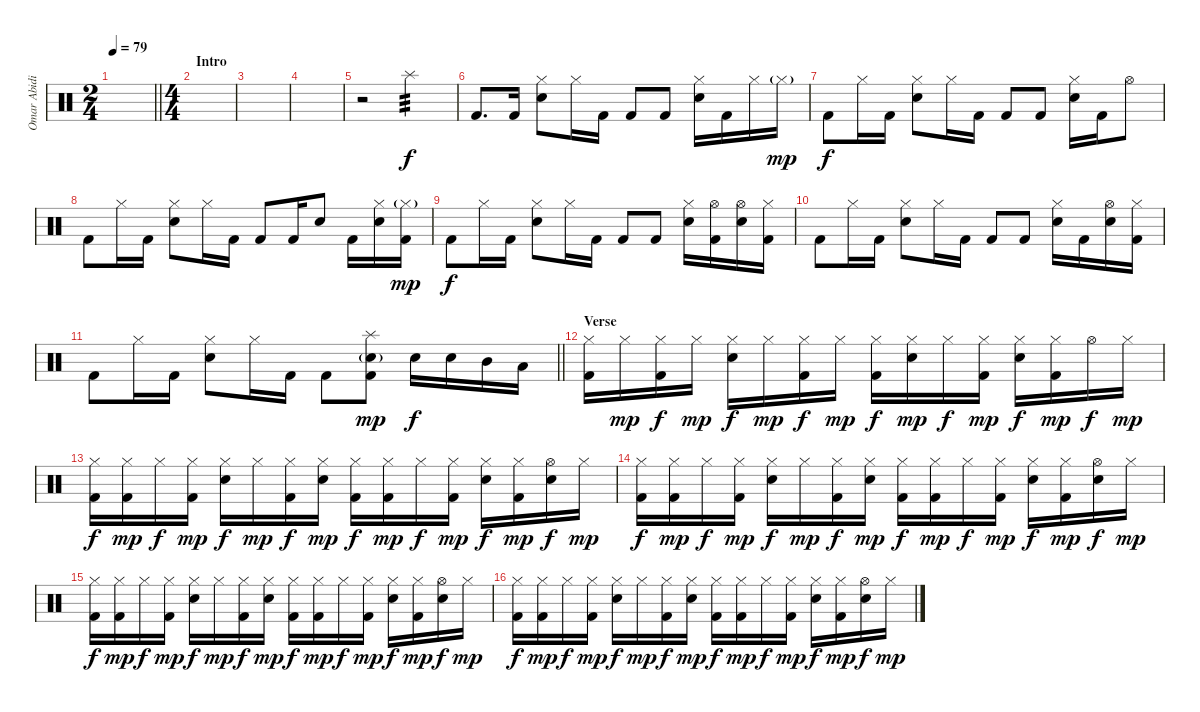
\track ("Omar Abidi" "Omar Abidi") {instrument percussion}
\staff {score}
\articulation defaults
\ts (2 4)
\tempo 79
\clef neutral
\barLineRight lightlight
\ks c
|
\ts (4 4)
\section ("" "Intro")
|
|
|
r.2{volume 0} "Splash (hit)".2{tp 3 volume 13} |
"Kick (hit) 2".8{d volume 13} "Kick (hit) 2".16 ("Hi-Hat (closed)" "Electric Snare (hit)").8 "Hi-Hat (closed)".16 "Kick (hit) 2".16 "Kick (hit) 2".8 "Kick (hit) 2".8 ("Hi-Hat (closed)" "Electric Snare (hit)").16 "Kick (hit) 2".16 "Hi-Hat (closed)".16 "Hi-Hat (closed)"{g}.16{dy mp} |
"Kick (hit) 2".8{dy f} "Hi-Hat (closed)".16 "Kick (hit) 2".16 ("Hi-Hat (closed)" "Electric Snare (hit)").8 "Hi-Hat (closed)".16 "Kick (hit) 2".16 "Kick (hit) 2".8 "Kick (hit) 2".8 ("Hi-Hat (closed)" "Electric Snare (hit)").16 "Kick (hit) 2".16 "Hi-Hat (open)".8 |
"Kick (hit) 2".8 "Hi-Hat (closed)".16 "Kick (hit) 2".16 ("Hi-Hat (closed)" "Electric Snare (hit)").8 "Hi-Hat (closed)".16 "Kick (hit) 2".16 "Kick (hit) 2".8 "Kick (hit) 2".16 "Electric Snare (hit)".8 "Kick (hit) 2".16 ("Hi-Hat (closed)" "Electric Snare (hit)").16 ("Hi-Hat (closed)"{g} "Kick (hit) 2").16{dy mp} |
"Kick (hit) 2".8{dy f} "Hi-Hat (closed)".16 "Kick (hit) 2".16 ("Hi-Hat (closed)" "Electric Snare (hit)").8 "Hi-Hat (closed)".16 "Kick (hit) 2".16 "Kick (hit) 2".8 "Kick (hit) 2".8 ("Hi-Hat (closed)" "Electric Snare (hit)").16 ("Hi-Hat (open)" "Kick (hit) 2").16 ("Hi-Hat (open)" "Electric Snare (hit)").16 ("Hi-Hat (closed)" "Kick (hit) 2").16 |
"Kick (hit) 2".8 "Hi-Hat (closed)".16 "Kick (hit) 2".16 ("Hi-Hat (closed)" "Electric Snare (hit)").8 "Hi-Hat (closed)".16 "Kick (hit) 2".16 "Kick (hit) 2".8 "Kick (hit) 2".8 ("Hi-Hat (closed)" "Electric Snare (hit)").16 "Kick (hit) 2".16 ("Hi-Hat (open)" "Electric Snare (hit)").16 ("Hi-Hat (closed)" "Kick (hit) 2").16 |
\barLineRight lightlight "Kick (hit) 2".8 "Hi-Hat (closed)".16 "Kick (hit) 2".16
("Hi-Hat (closed)" "Electric Snare (hit)").8 "Hi-Hat (closed)".16 "Kick (hit) 2".16 "Kick (hit) 2".8 ("Splash (hit)" "Electric Snare (hit)"{g} "Kick (hit) 2").8{dy mp} "Electric Snare (hit)".16{dy f} "Electric Snare (hit)".16 "Mid Tom (hit)".16 "Low Tom (hit)".16 |
\section ("" "Verse")
("Hi-Hat (closed)" "Kick (hit) 2").16 "Hi-Hat (closed)".16{dy mp} ("Hi-Hat (closed)" "Kick (hit) 2").16{dy f} "Hi-Hat (closed)".16{dy mp} ("Hi-Hat (closed)" "Electric Snare (hit)").16{dy f} "Hi-Hat (closed)".16{dy mp} ("Hi-Hat (closed)" "Kick (hit) 2").16{dy f} "Hi-Hat (closed)".16{dy mp} ("Hi-Hat (closed)" "Kick (hit) 2").16{dy f} ("Hi-Hat (closed)" "Electric Snare (hit)").16{dy mp} "Hi-Hat (closed)".16{dy f} ("Hi-Hat (closed)" "Kick (hit) 2").16{dy mp} ("Hi-Hat (closed)" "Electric Snare (hit)").16{dy f} ("Hi-Hat (closed)" "Kick (hit) 2").16{dy mp} "Hi-Hat (open)".16{dy f} "Hi-Hat (closed)".16{dy mp} |
("Hi-Hat (closed)" "Kick (hit) 2").16{dy f} ("Hi-Hat (closed)" "Kick (hit) 2").16{dy mp} "Hi-Hat (closed)".16{dy f} ("Hi-Hat (closed)" "Kick (hit) 2").16{dy mp} ("Hi-Hat (closed)" "Electric Snare (hit)").16{dy f} "Hi-Hat (closed)".16{dy mp} ("Hi-Hat (closed)" "Kick (hit) 2").16{dy f} ("Hi-Hat (closed)" "Electric Snare (hit)").16{dy mp} ("Hi-Hat (closed)" "Kick (hit) 2").16{dy f} ("Hi-Hat (closed)" "Kick (hit) 2").16{dy mp} "Hi-Hat (closed)".16{dy f} ("Hi-Hat (closed)" "Kick (hit) 2").16{dy mp} ("Hi-Hat (closed)" "Electric Snare (hit)").16{dy f} ("Hi-Hat (closed)" "Kick (hit) 2").16{dy mp} ("Hi-Hat (open)" "Electric Snare (hit)").16{dy f} "Hi-Hat (closed)".16{dy mp} |
("Hi-Hat (closed)" "Kick (hit) 2").16{dy f} ("Hi-Hat (closed)" "Kick (hit) 2").16{dy mp} "Hi-Hat (closed)".16{dy f} ("Hi-Hat (closed)" "Kick (hit) 2").16{dy mp} ("Hi-Hat (closed)" "Electric Snare (hit)").16{dy f} "Hi-Hat (closed)".16{dy mp} ("Hi-Hat (closed)" "Kick (hit) 2").16{dy f} ("Hi-Hat (closed)" "Electric Snare (hit)").16{dy mp} ("Hi-Hat (closed)" "Kick (hit) 2").16{dy f} ("Hi-Hat (closed)" "Kick (hit) 2").16{dy mp} "Hi-Hat (closed)".16{dy f} ("Hi-Hat (closed)" "Kick (hit) 2").16{dy mp} ("Hi-Hat (closed)" "Electric Snare (hit)").16{dy f} ("Hi-Hat (closed)" "Kick (hit) 2").16{dy mp} ("Hi-Hat (open)" "Electric Snare (hit)").16{dy f} "Hi-Hat (closed)".16{dy mp} |
("Hi-Hat (closed)" "Kick (hit) 2").16{dy f} ("Hi-Hat (closed)" "Kick (hit) 2").16{dy mp} "Hi-Hat (closed)".16{dy f} ("Hi-Hat (closed)" "Kick (hit) 2").16{dy mp} ("Hi-Hat (closed)" "Electric Snare (hit)").16{dy f} "Hi-Hat (closed)".16{dy mp} ("Hi-Hat (closed)" "Kick (hit) 2").16{dy f} ("Hi-Hat (closed)" "Electric Snare (hit)").16{dy mp} ("Hi-Hat (closed)" "Kick (hit) 2").16{dy f} ("Hi-Hat (closed)" "Kick (hit) 2").16{dy mp} "Hi-Hat (closed)".16{dy f} ("Hi-Hat (closed)" "Kick (hit) 2").16{dy mp} ("Hi-Hat (closed)" "Electric Snare (hit)").16{dy f} ("Hi-Hat (closed)" "Kick (hit) 2").16{dy mp} ("Hi-Hat (open)" "Electric Snare (hit)").16{dy f} "Hi-Hat (closed)".16{dy mp} |
("Hi-Hat (closed)" "Kick (hit) 2").16{dy f} ("Hi-Hat (closed)" "Kick (hit) 2").16{dy mp} "Hi-Hat (closed)".16{dy f} ("Hi-Hat (closed)" "Kick (hit) 2").16{dy mp} ("Hi-Hat (closed)" "Electric Snare (hit)").16{dy f} "Hi-Hat (closed)".16{dy mp} ("Hi-Hat (closed)" "Kick (hit) 2").16{dy f} ("Hi-Hat (closed)" "Electric Snare (hit)").16{dy mp} ("Hi-Hat (closed)" "Kick (hit) 2").16{dy f} ("Hi-Hat (closed)" "Kick (hit) 2").16{dy mp} "Hi-Hat (closed)".16{dy f} ("Hi-Hat (closed)" "Kick (hit) 2").16{dy mp} ("Hi-Hat (closed)" "Electric Snare (hit)").16{dy f} ("Hi-Hat (closed)" "Kick (hit) 2").16{dy mp} ("Hi-Hat (open)" "Electric Snare (hit)").16{dy f} "Hi-Hat (closed)".16{dy mp}
